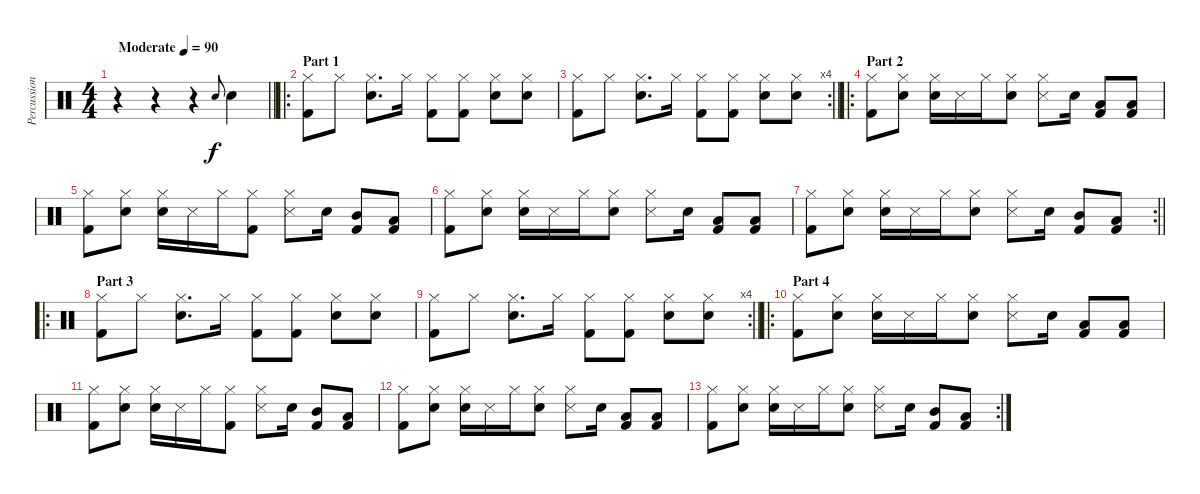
\track ("Percussion" "Percussion") {instrument percussion}
\staff {score}
\articulation defaults
\ts (4 4)
\tempo (90 "Moderate")
\clef neutral
\barLineRight lightlight
\ks c
r.4{dy f} r.4 r.4 "Snare (hit) 2".8{gr onbeat} "Snare (hit) 2".4 |
\ro
\section ("" "Part 1")
("Hi-Hat (closed)" "Kick (hit) 2").8 "Hi-Hat (closed)".8 ("Hi-Hat (closed)" "Snare (hit) 2").8{d} "Hi-Hat (closed)".16 ("Hi-Hat (closed)" "Kick (hit) 2").8 ("Hi-Hat (closed)" "Kick (hit) 2").8 ("Hi-Hat (closed)" "Snare (hit) 2").8 ("Hi-Hat (closed)" "Snare (hit) 2").8 |
\rc 4
\barLineRight lightlight
("Hi-Hat (closed)" "Kick (hit) 2").8 "Hi-Hat (closed)".8 ("Hi-Hat (closed)" "Snare (hit) 2").8{d} "Hi-Hat (closed)".16 ("Hi-Hat (closed)" "Kick (hit) 2").8 ("Hi-Hat (closed)" "Kick (hit) 2").8 ("Hi-Hat (closed)" "Snare (hit) 2").8 ("Hi-Hat (closed)" "Snare (hit) 2").8 |
\ro
\section ("" "Part 2")
("Kick (hit) 2" "Hi-Hat (closed)").8 ("Snare (hit) 2" "Hi-Hat (closed)").8 ("Snare (hit) 2" "Hi-Hat (closed)").16 "Snare (side stick) 3".16 "Hi-Hat (closed)".16 ("Snare (hit) 2" "Hi-Hat (closed)").8 ("Hi-Hat (closed)" "Snare (side stick) 3").8 "Snare (hit) 2".16 ("Low Floor Tom (hit)" "Kick (hit) 2").8 ("Low Floor Tom (hit)" "Kick (hit) 2").8 |
("Kick (hit) 2" "Hi-Hat (closed)").8 ("Snare (hit) 2" "Hi-Hat (closed)").8 ("Snare (hit) 2" "Hi-Hat (closed)").16 "Snare (side stick) 3".16 "Hi-Hat (closed)".16 ("Kick (hit) 2" "Hi-Hat (closed)").8 ("Hi-Hat (closed)" "Snare (side stick) 3").8 "Snare (hit) 2".16 ("Mid Tom (hit)" "Kick (hit) 2").8 ("Low Floor Tom (hit)" "Kick (hit) 2").8 |
("Kick (hit) 2" "Hi-Hat (closed)").8 ("Snare (hit) 2" "Hi-Hat (closed)").8 ("Snare (hit) 2" "Hi-Hat (closed)").16 "Snare (side stick) 3".16 "Hi-Hat (closed)".16 ("Snare (hit) 2" "Hi-Hat (closed)").8 ("Hi-Hat (closed)" "Snare (side stick) 3").8 "Snare (hit) 2".16 ("Low Floor Tom (hit)" "Kick (hit) 2").8 ("Low Floor Tom (hit)" "Kick (hit) 2").8 |
\rc 2
\barLineRight lightlight
("Kick (hit) 2" "Hi-Hat (closed)").8 ("Snare (hit) 2" "Hi-Hat (closed)").8 ("Snare (hit) 2" "Hi-Hat (closed)").16 "Snare (side stick) 3".16 "Hi-Hat (closed)".16 ("Snare (hit) 2" "Hi-Hat (closed)").8 ("Hi-Hat (closed)" "Snare (side stick) 3").8 "Snare (hit) 2".16 ("Mid Tom (hit)" "Kick (hit) 2").8 ("Low Floor Tom (hit)" "Kick (hit) 2").8 |
\ro
\section ("" "Part 3")
("Hi-Hat (closed)" "Kick (hit) 2").8 "Hi-Hat (closed)".8 ("Hi-Hat (closed)" "Snare (hit) 2").8{d} "Hi-Hat (closed)".16 ("Hi-Hat (closed)" "Kick (hit) 2").8 ("Hi-Hat (closed)" "Kick (hit) 2").8 ("Hi-Hat (closed)" "Snare (hit) 2").8 ("Hi-Hat (closed)" "Snare (hit) 2").8 |
\rc 4
\barLineRight lightlight
("Hi-Hat (closed)" "Kick (hit) 2").8 "Hi-Hat (closed)".8 ("Hi-Hat (closed)" "Snare (hit) 2").8{d} "Hi-Hat (closed)".16 ("Hi-Hat (closed)" "Kick (hit) 2").8 ("Hi-Hat (closed)" "Kick (hit) 2").8 ("Hi-Hat (closed)" "Snare (hit) 2").8 ("Hi-Hat (closed)" "Snare (hit) 2").8 |
\ro
\section ("" "Part 4")
("Kick (hit) 2" "Hi-Hat (closed)").8 ("Snare (hit) 2" "Hi-Hat (closed)").8 ("Snare (hit) 2" "Hi-Hat (closed)").16 "Snare (side stick) 3".16 "Hi-Hat (closed)".16 ("Snare (hit) 2" "Hi-Hat (closed)").8 ("Hi-Hat (closed)" "Snare (side stick) 3").8 "Snare (hit) 2".16 ("Low Floor Tom (hit)" "Kick (hit) 2").8 ("Low Floor Tom (hit)" "Kick (hit) 2").8 |
("Kick (hit) 2" "Hi-Hat (closed)").8 ("Snare (hit) 2" "Hi-Hat (closed)").8 ("Snare (hit) 2" "Hi-Hat (closed)").16 "Snare (side stick) 3".16 "Hi-Hat (closed)".16 ("Kick (hit) 2" "Hi-Hat (closed)").8 ("Hi-Hat (closed)" "Snare (side stick) 3").8 "Snare (hit) 2".16 ("Mid Tom (hit)" "Kick (hit) 2").8 ("Low Floor Tom (hit)" "Kick (hit) 2").8 |
("Kick (hit) 2" "Hi-Hat (closed)").8 ("Snare (hit) 2" "Hi-Hat (closed)").8 ("Snare (hit) 2" "Hi-Hat (closed)").16 "Snare (side stick) 3".16 "Hi-Hat (closed)".16 ("Snare (hit) 2" "Hi-Hat (closed)").8 ("Hi-Hat (closed)" "Snare (side stick) 3").8 "Snare (hit) 2".16 ("Low Floor Tom (hit)" "Kick (hit) 2").8 ("Low Floor Tom (hit)" "Kick (hit) 2").8 |
\rc 2
("Kick (hit) 2" "Hi-Hat (closed)").8 ("Snare (hit) 2" "Hi-Hat (closed)").8 ("Snare (hit) 2" "Hi-Hat (closed)").16 "Snare (side stick) 3".16 "Hi-Hat (closed)".16 ("Snare (hit) 2" "Hi-Hat (closed)").8 ("Hi-Hat (closed)" "Snare (side stick) 3").8 "Snare (hit) 2".16 ("Mid Tom (hit)" "Kick (hit) 2").8 ("Low Floor Tom (hit)" "Kick (hit) 2").8
